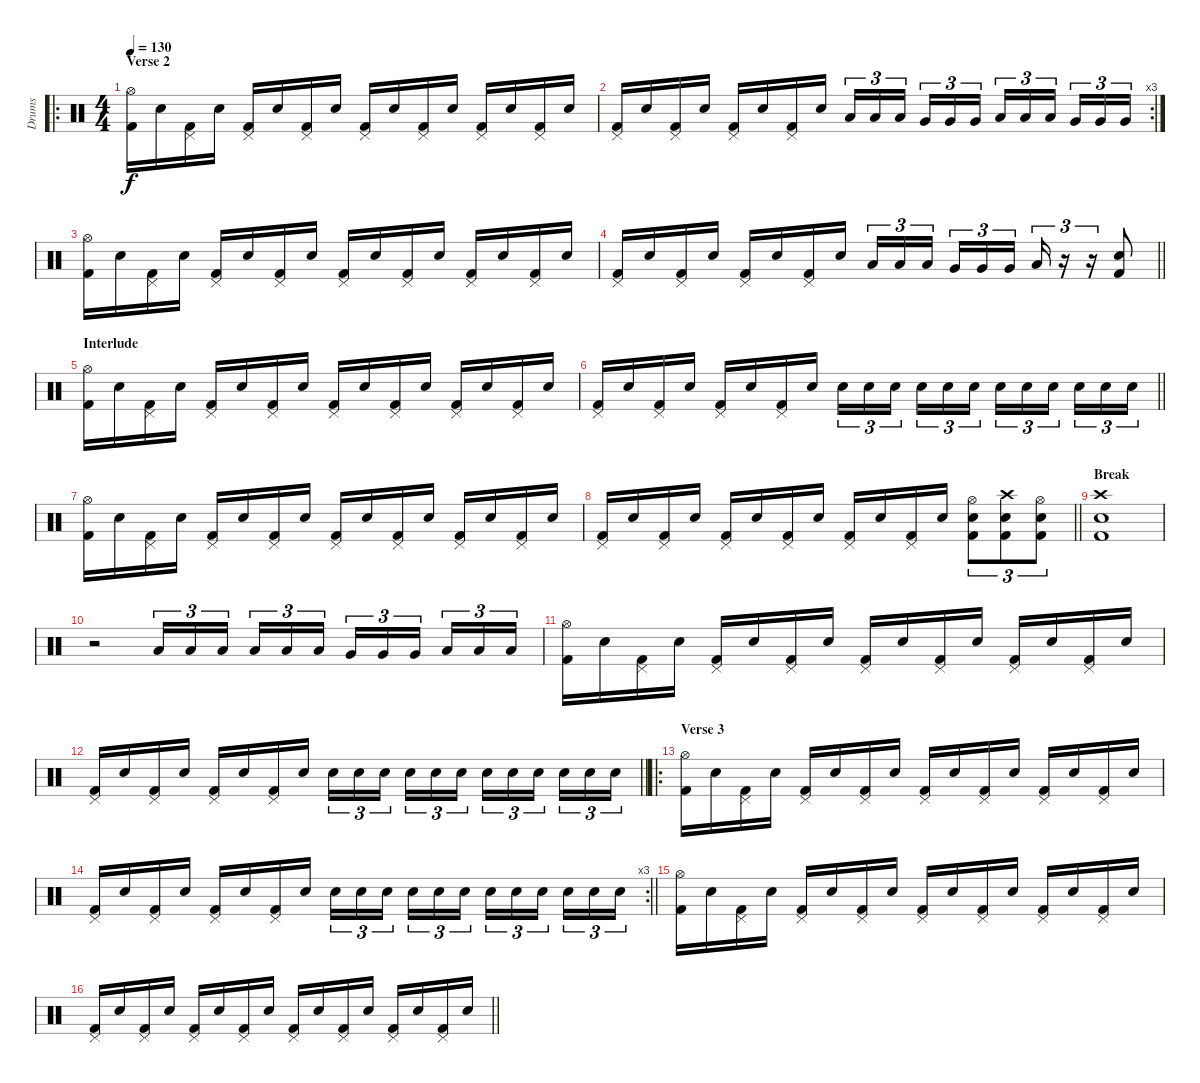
\track ("Drums" "Drums") {instrument percussion}
\staff {score}
\articulation defaults
\ro
\ts (4 4)
\section ("" "Verse 2")
\tempo 130
\clef neutral
\ks c
("Hi-Hat (open)" "Kick (hit) 2").16{dy f} "Snare (hit) 2".16 ("Pedal Hi-Hat (hit)" "Kick (hit) 2").16 "Snare (hit) 2".16 ("Pedal Hi-Hat (hit)" "Kick (hit) 2").16 "Snare (hit) 2".16 ("Pedal Hi-Hat (hit)" "Kick (hit) 2").16 "Snare (hit) 2".16 ("Pedal Hi-Hat (hit)" "Kick (hit) 2").16 "Snare (hit) 2".16 ("Pedal Hi-Hat (hit)" "Kick (hit) 2").16 "Snare (hit) 2".16 ("Pedal Hi-Hat (hit)" "Kick (hit) 2").16 "Snare (hit) 2".16 ("Pedal Hi-Hat (hit)" "Kick (hit) 2").16 "Snare (hit) 2".16 |
\rc 3
("Pedal Hi-Hat (hit)" "Kick (hit) 2").16 "Snare (hit) 2".16 ("Pedal Hi-Hat (hit)" "Kick (hit) 2").16 "Snare (hit) 2".16 ("Pedal Hi-Hat (hit)" "Kick (hit) 2").16 "Snare (hit) 2".16 ("Pedal Hi-Hat (hit)" "Kick (hit) 2").16 "Snare (hit) 2".16 "Low Tom (hit)".16{tu (3 2)} "Low Tom (hit)".16{tu (3 2)} "Low Tom (hit)".16{tu (3 2) beam splitsecondary} "Very Low Tom (hit)".16{tu (3 2)} "Very Low Tom (hit)".16{tu (3 2)} "Very Low Tom (hit)".16{tu (3 2)} "Low Floor Tom (hit)".16{tu (3 2)} "Low Floor Tom (hit)".16{tu (3 2)} "Low Floor Tom (hit)".16{tu (3 2) beam splitsecondary} "Very Low Tom (hit)".16{tu (3 2)} "Very Low Tom (hit)".16{tu (3 2)} "Very Low Tom (hit)".16{tu (3 2)} |
("Hi-Hat (open)" "Kick (hit) 2").16 "Snare (hit) 2".16 ("Pedal Hi-Hat (hit)" "Kick (hit) 2").16 "Snare (hit) 2".16 ("Pedal Hi-Hat (hit)" "Kick (hit) 2").16 "Snare (hit) 2".16 ("Pedal Hi-Hat (hit)" "Kick (hit) 2").16 "Snare (hit) 2".16 ("Pedal Hi-Hat (hit)" "Kick (hit) 2").16 "Snare (hit) 2".16 ("Pedal Hi-Hat (hit)" "Kick (hit) 2").16 "Snare (hit) 2".16 ("Pedal Hi-Hat (hit)" "Kick (hit) 2").16 "Snare (hit) 2".16 ("Pedal Hi-Hat (hit)" "Kick (hit) 2").16 "Snare (hit) 2".16 |
\barLineRight lightlight
("Pedal Hi-Hat (hit)" "Kick (hit) 2").16 "Snare (hit) 2".16 ("Pedal Hi-Hat (hit)" "Kick (hit) 2").16 "Snare (hit) 2".16 ("Pedal Hi-Hat (hit)" "Kick (hit) 2").16 "Snare (hit) 2".16 ("Pedal Hi-Hat (hit)" "Kick (hit) 2").16 "Snare (hit) 2".16 "Low Tom (hit)".16{tu (3 2)} "Low Tom (hit)".16{tu (3 2)} "Low Tom (hit)".16{tu (3 2) beam splitsecondary} "Very Low Tom (hit)".16{tu (3 2)} "Very Low Tom (hit)".16{tu (3 2)} "Very Low Tom (hit)".16{tu (3 2)} "Low Floor Tom (hit)".16{tu (3 2)} r.16{tu (3 2)} r.16{tu (3 2)} ("Snare (hit) 2" "Kick (hit) 2").8 |
\section ("" "Interlude")
("Hi-Hat (open)" "Kick (hit) 2").16 "Snare (hit) 2".16 ("Pedal Hi-Hat (hit)" "Kick (hit) 2").16 "Snare (hit) 2".16 ("Pedal Hi-Hat (hit)" "Kick (hit) 2").16 "Snare (hit) 2".16 ("Pedal Hi-Hat (hit)" "Kick (hit) 2").16 "Snare (hit) 2".16 ("Pedal Hi-Hat (hit)" "Kick (hit) 2").16 "Snare (hit) 2".16 ("Pedal Hi-Hat (hit)" "Kick (hit) 2").16 "Snare (hit) 2".16 ("Pedal Hi-Hat (hit)" "Kick (hit) 2").16 "Snare (hit) 2".16 ("Pedal Hi-Hat (hit)" "Kick (hit) 2").16 "Snare (hit) 2".16 |
\barLineRight lightlight
("Pedal Hi-Hat (hit)" "Kick (hit) 2").16 "Snare (hit) 2".16 ("Pedal Hi-Hat (hit)" "Kick (hit) 2").16 "Snare (hit) 2".16 ("Pedal Hi-Hat (hit)" "Kick (hit) 2").16 "Snare (hit) 2".16 ("Pedal Hi-Hat (hit)" "Kick (hit) 2").16 "Snare (hit) 2".16 "Snare (hit) 2".16{tu (3 2)} "Snare (hit) 2".16{tu (3 2)} "Snare (hit) 2".16{tu (3 2) beam splitsecondary} "Snare (hit) 2".16{tu (3 2)} "Snare (hit) 2".16{tu (3 2)} "Snare (hit) 2".16{tu (3 2)} "Snare (hit) 2".16{tu (3 2)} "Snare (hit) 2".16{tu (3 2)} "Snare (hit) 2".16{tu (3 2) beam splitsecondary} "Snare (hit) 2".16{tu (3 2)} "Snare (hit) 2".16{tu (3 2)} "Snare (hit) 2".16{tu (3 2)} |
("Hi-Hat (open)" "Kick (hit) 2").16 "Snare (hit) 2".16 ("Pedal Hi-Hat (hit)" "Kick (hit) 2").16 "Snare (hit) 2".16 ("Pedal Hi-Hat (hit)" "Kick (hit) 2").16 "Snare (hit) 2".16 ("Pedal Hi-Hat (hit)" "Kick (hit) 2").16 "Snare (hit) 2".16 ("Pedal Hi-Hat (hit)" "Kick (hit) 2").16 "Snare (hit) 2".16 ("Pedal Hi-Hat (hit)" "Kick (hit) 2").16 "Snare (hit) 2".16 ("Pedal Hi-Hat (hit)" "Kick (hit) 2").16 "Snare (hit) 2".16 ("Pedal Hi-Hat (hit)" "Kick (hit) 2").16 "Snare (hit) 2".16 |
\barLineRight lightlight
("Pedal Hi-Hat (hit)" "Kick (hit) 2").16 "Snare (hit) 2".16 ("Pedal Hi-Hat (hit)" "Kick (hit) 2").16 "Snare (hit) 2".16 ("Pedal Hi-Hat (hit)" "Kick (hit) 2").16 "Snare (hit) 2".16 ("Pedal Hi-Hat (hit)" "Kick (hit) 2").16 "Snare (hit) 2".16 ("Pedal Hi-Hat (hit)" "Kick (hit) 2").16 "Snare (hit) 2".16 ("Pedal Hi-Hat (hit)" "Kick (hit) 2").16 "Snare (hit) 2".16 ("Hi-Hat (open)" "Snare (hit) 2" "Kick (hit) 2").8{tu (3 2)} ("Crash high (hit)" "Snare (hit) 2" "Kick (hit) 2").8{tu (3 2)} ("Hi-Hat (open)" "Snare (hit) 2" "Kick (hit) 2").8{tu (3 2)} |
\section ("" "Break")
("Crash high (hit)" "Snare (hit) 2" "Kick (hit) 2").1 |
r.2 "Low Tom (hit)".16{tu (3 2)} "Low Tom (hit)".16{tu (3 2)} "Low Tom (hit)".16{tu (3 2) beam splitsecondary} "Low Tom (hit)".16{tu (3 2)} "Low Tom (hit)".16{tu (3 2)} "Low Tom (hit)".16{tu (3 2)} "Very Low Tom (hit)".16{tu (3 2)} "Very Low Tom (hit)".16{tu (3 2)} "Very Low Tom (hit)".16{tu (3 2) beam splitsecondary} "Low Floor Tom (hit)".16{tu (3 2)} "Low Floor Tom (hit)".16{tu (3 2)} "Low Floor Tom (hit)".16{tu (3 2)} |
("Hi-Hat (open)" "Kick (hit) 2").16 "Snare (hit) 2".16 ("Pedal Hi-Hat (hit)" "Kick (hit) 2").16 "Snare (hit) 2".16 ("Pedal Hi-Hat (hit)" "Kick (hit) 2").16 "Snare (hit) 2".16 ("Pedal Hi-Hat (hit)" "Kick (hit) 2").16 "Snare (hit) 2".16 ("Pedal Hi-Hat (hit)" "Kick (hit) 2").16 "Snare (hit) 2".16 ("Pedal Hi-Hat (hit)" "Kick (hit) 2").16 "Snare (hit) 2".16 ("Pedal Hi-Hat (hit)" "Kick (hit) 2").16 "Snare (hit) 2".16 ("Pedal Hi-Hat (hit)" "Kick (hit) 2").16 "Snare (hit) 2".16 |
\barLineRight lightlight
("Pedal Hi-Hat (hit)" "Kick (hit) 2").16 "Snare (hit) 2".16 ("Pedal Hi-Hat (hit)" "Kick (hit) 2").16 "Snare (hit) 2".16 ("Pedal Hi-Hat (hit)" "Kick (hit) 2").16 "Snare (hit) 2".16 ("Pedal Hi-Hat (hit)" "Kick (hit) 2").16 "Snare (hit) 2".16 "Snare (hit) 2".16{tu (3 2)} "Snare (hit) 2".16{tu (3 2)} "Snare (hit) 2".16{tu (3 2) beam splitsecondary} "Snare (hit) 2".16{tu (3 2)} "Snare (hit) 2".16{tu (3 2)} "Snare (hit) 2".16{tu (3 2)} "Snare (hit) 2".16{tu (3 2)} "Snare (hit) 2".16{tu (3 2)} "Snare (hit) 2".16{tu (3 2) beam splitsecondary} "Snare (hit) 2".16{tu (3 2)} "Snare (hit) 2".16{tu (3 2)} "Snare (hit) 2".16{tu (3 2)} |
\ro
\section ("" "Verse 3")
("Hi-Hat (open)" "Kick (hit) 2").16 "Snare (hit) 2".16 ("Pedal Hi-Hat (hit)" "Kick (hit) 2").16 "Snare (hit) 2".16 ("Pedal Hi-Hat (hit)" "Kick (hit) 2").16 "Snare (hit) 2".16 ("Pedal Hi-Hat (hit)" "Kick (hit) 2").16 "Snare (hit) 2".16 ("Pedal Hi-Hat (hit)" "Kick (hit) 2").16 "Snare (hit) 2".16 ("Pedal Hi-Hat (hit)" "Kick (hit) 2").16 "Snare (hit) 2".16 ("Pedal Hi-Hat (hit)" "Kick (hit) 2").16 "Snare (hit) 2".16 ("Pedal Hi-Hat (hit)" "Kick (hit) 2").16 "Snare (hit) 2".16 |
\rc 3
\barLineRight lightlight
("Pedal Hi-Hat (hit)" "Kick (hit) 2").16 "Snare (hit) 2".16 ("Pedal Hi-Hat (hit)" "Kick (hit) 2").16 "Snare (hit) 2".16 ("Pedal Hi-Hat (hit)" "Kick (hit) 2").16 "Snare (hit) 2".16 ("Pedal Hi-Hat (hit)" "Kick (hit) 2").16 "Snare (hit) 2".16 "Snare (hit) 2".16{tu (3 2)} "Snare (hit) 2".16{tu (3 2)} "Snare (hit) 2".16{tu (3 2) beam splitsecondary} "Snare (hit) 2".16{tu (3 2)} "Snare (hit) 2".16{tu (3 2)} "Snare (hit) 2".16{tu (3 2)} "Snare (hit) 2".16{tu (3 2)} "Snare (hit) 2".16{tu (3 2)} "Snare (hit) 2".16{tu (3 2) beam splitsecondary} "Snare (hit) 2".16{tu (3 2)} "Snare (hit) 2".16{tu (3 2)} "Snare (hit) 2".16{tu (3 2)} |
("Hi-Hat (open)" "Kick (hit) 2").16 "Snare (hit) 2".16 ("Pedal Hi-Hat (hit)" "Kick (hit) 2").16 "Snare (hit) 2".16 ("Pedal Hi-Hat (hit)" "Kick (hit) 2").16 "Snare (hit) 2".16 ("Pedal Hi-Hat (hit)" "Kick (hit) 2").16 "Snare (hit) 2".16 ("Pedal Hi-Hat (hit)" "Kick (hit) 2").16 "Snare (hit) 2".16 ("Pedal Hi-Hat (hit)" "Kick (hit) 2").16 "Snare (hit) 2".16 ("Pedal Hi-Hat (hit)" "Kick (hit) 2").16 "Snare (hit) 2".16 ("Pedal Hi-Hat (hit)" "Kick (hit) 2").16 "Snare (hit) 2".16 |
\barLineRight lightlight
("Pedal Hi-Hat (hit)" "Kick (hit) 2").16 "Snare (hit) 2".16 ("Pedal Hi-Hat (hit)" "Kick (hit) 2").16 "Snare (hit) 2".16 ("Pedal Hi-Hat (hit)" "Kick (hit) 2").16 "Snare (hit) 2".16 ("Pedal Hi-Hat (hit)" "Kick (hit) 2").16 "Snare (hit) 2".16 ("Pedal Hi-Hat (hit)" "Kick (hit) 2").16 "Snare (hit) 2".16 ("Pedal Hi-Hat (hit)" "Kick (hit) 2").16 "Snare (hit) 2".16 ("Pedal Hi-Hat (hit)" "Kick (hit) 2").16 "Snare (hit) 2".16 ("Pedal Hi-Hat (hit)" "Kick (hit) 2").16 "Snare (hit) 2".16
